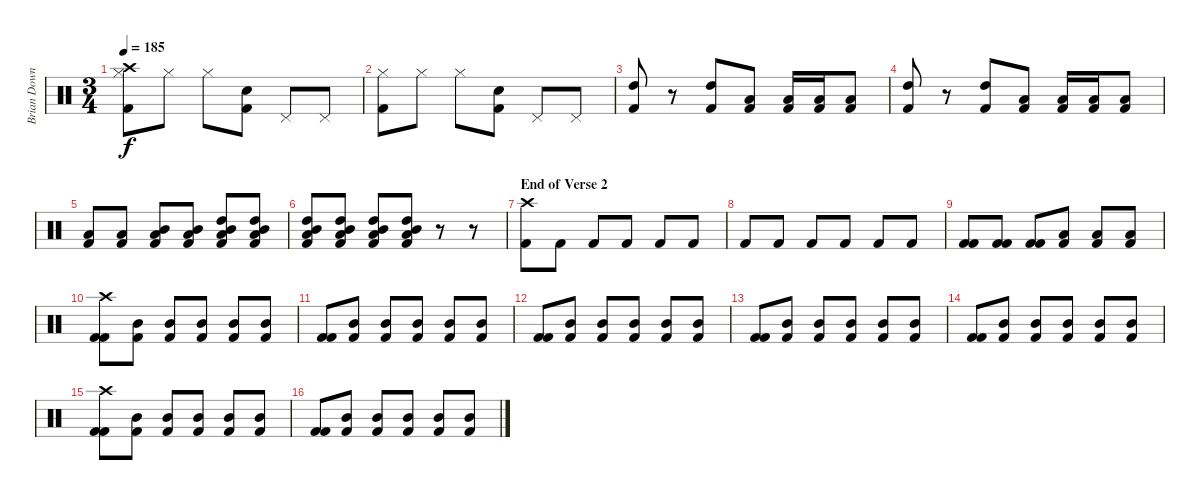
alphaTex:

\track ("Brian Downey" "Brian Down") {instrument percussion}
\staff {score}
\articulation defaults
\ts (3 4)
\tempo 185
\clef neutral
\ks c
("Crash high (hit)" "Hi-Hat (closed)" "Kick (hit) 2").8{dy f} "Hi-Hat (closed)".8 "Hi-Hat (closed)".8 ("Snare (hit) 2" "Kick (hit) 2").8 "Pedal Hi-Hat (hit)".8 "Pedal Hi-Hat (hit)".8 |
("Hi-Hat (closed)" "Kick (hit) 2").8 "Hi-Hat (closed)".8 "Hi-Hat (closed)".8 ("Snare (hit) 2" "Kick (hit) 2").8 "Pedal Hi-Hat (hit)".8 "Pedal Hi-Hat (hit)".8 |
("High Tom (hit)" "Kick (hit) 2").8 r.8 ("High Tom (hit)" "Kick (hit) 2").8 ("Low Tom (hit)" "Kick (hit) 2").8 ("Low Tom (hit)" "Kick (hit) 2").16 ("Low Tom (hit)" "Kick (hit) 2").16 ("Low Tom (hit)" "Kick (hit) 2").8 |
("High Tom (hit)" "Kick (hit) 2").8 r.8 ("High Tom (hit)" "Kick (hit) 2").8 ("Low Tom (hit)" "Kick (hit) 2").8 ("Low Tom (hit)" "Kick (hit) 2").16 ("Low Tom (hit)" "Kick (hit) 2").16 ("Low Tom (hit)" "Kick (hit) 2").8 |
("Low Tom (hit)" "Kick (hit) 2").8 ("Low Tom (hit)" "Kick (hit) 2").8 ("Mid Tom (hit)" "Low Tom (hit)" "Kick (hit) 2").8 ("Mid Tom (hit)" "Low Tom (hit)" "Kick (hit) 2").8 ("High Tom (hit)" "Mid Tom (hit)" "Low Tom (hit)" "Kick (hit) 2").8 ("High Tom (hit)" "Mid Tom (hit)" "Low Tom (hit)" "Kick (hit) 2").8 |
("High Tom (hit)" "Mid Tom (hit)" "Low Tom (hit)" "Kick (hit) 2").8 ("High Tom (hit)" "Mid Tom (hit)" "Low Tom (hit)" "Kick (hit) 2").8 ("High Tom (hit)" "Mid Tom (hit)" "Low Tom (hit)" "Kick (hit) 2").8 ("High Tom (hit)" "Mid Tom (hit)" "Low Tom (hit)" "Kick (hit) 2").8 r.8 r.8 |
\section ("" "End of Verse 2")
("Crash high (hit)" "Kick (hit) 2").8 "Kick (hit) 2".8 "Kick (hit) 2".8 "Kick (hit) 2".8 "Kick (hit) 2".8 "Kick (hit) 2".8 |
"Kick (hit) 2".8 "Kick (hit) 2".8 "Kick (hit) 2".8 "Kick (hit) 2".8 "Kick (hit) 2".8 "Kick (hit) 2".8 |
("Kick (hit) 2" "Kick (hit) 2").8 ("Kick (hit) 2" "Kick (hit) 2").8 ("Kick (hit) 2" "Kick (hit) 2").8 ("Low Tom (hit)" "Kick (hit) 2").8 ("Low Tom (hit)" "Kick (hit) 2").8 ("Low Tom (hit)" "Kick (hit) 2").8 |
("Crash high (hit)" "Kick (hit) 2" "Kick (hit) 2").8 ("Mid Tom (hit)" "Kick (hit) 2").8 ("Mid Tom (hit)" "Kick (hit) 2").8 ("Mid Tom (hit)" "Kick (hit) 2").8 ("Mid Tom (hit)" "Kick (hit) 2").8 ("Mid Tom (hit)" "Kick (hit) 2").8 |
("Kick (hit) 2" "Kick (hit) 2").8 ("Mid Tom (hit)" "Kick (hit) 2").8 ("Mid Tom (hit)" "Kick (hit) 2").8 ("Mid Tom (hit)" "Kick (hit) 2").8 ("Mid Tom (hit)" "Kick (hit) 2").8 ("Mid Tom (hit)" "Kick (hit) 2").8 |
("Kick (hit) 2" "Kick (hit) 2").8 ("Mid Tom (hit)" "Kick (hit) 2").8 ("Mid Tom (hit)" "Kick (hit) 2").8 ("Mid Tom (hit)" "Kick (hit) 2").8 ("Mid Tom (hit)" "Kick (hit) 2").8 ("Mid Tom (hit)" "Kick (hit) 2").8 |
("Kick (hit) 2" "Kick (hit) 2").8 ("Mid Tom (hit)" "Kick (hit) 2").8 ("Mid Tom (hit)" "Kick (hit) 2").8 ("Mid Tom (hit)" "Kick (hit) 2").8 ("Mid Tom (hit)" "Kick (hit) 2").8 ("Mid Tom (hit)" "Kick (hit) 2").8 |
("Kick (hit) 2" "Kick (hit) 2").8 ("Mid Tom (hit)" "Kick (hit) 2").8 ("Mid Tom (hit)" "Kick (hit) 2").8 ("Mid Tom (hit)" "Kick (hit) 2").8 ("Mid Tom (hit)" "Kick (hit) 2").8 ("Mid Tom (hit)" "Kick (hit) 2").8 |
("Crash high (hit)" "Kick (hit) 2" "Kick (hit) 2").8 ("Mid Tom (hit)" "Kick (hit) 2").8 ("Mid Tom (hit)" "Kick (hit) 2").8 ("Mid Tom (hit)" "Kick (hit) 2").8 ("Mid Tom (hit)" "Kick (hit) 2").8 ("Mid Tom (hit)" "Kick (hit) 2").8 |
("Kick (hit) 2" "Kick (hit) 2").8 ("Mid Tom (hit)" "Kick (hit) 2").8 ("Mid Tom (hit)" "Kick (hit) 2").8 ("Mid Tom (hit)" "Kick (hit) 2").8 ("Mid Tom (hit)" "Kick (hit) 2").8 ("Mid Tom (hit)" "Kick (hit) 2").8
